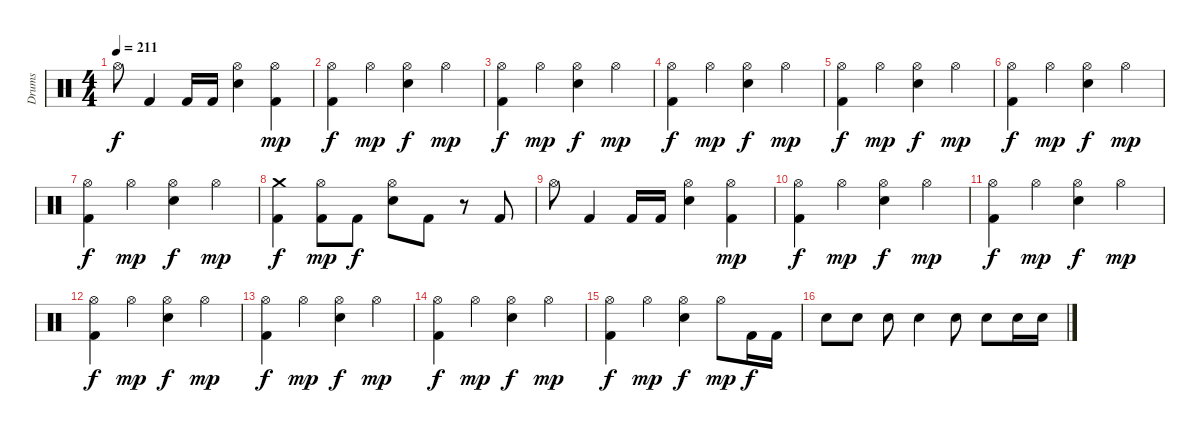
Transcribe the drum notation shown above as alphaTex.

\track ("Drums" "Drums") {instrument percussion}
\staff {score}
\articulation defaults
\ts (4 4)
\tempo 211
\clef neutral
\ks c "Hi-Hat (open)".8{dy f} "Kick (hit) 2".4 "Kick (hit) 2".16 "Kick (hit) 2".16
("Snare (hit) 2" "Hi-Hat (open)").4 ("Kick (hit) 2" "Hi-Hat (open)").4{dy mp} |
("Kick (hit) 2" "Hi-Hat (open)").4{dy f} "Hi-Hat (open)".4{dy mp} ("Snare (hit) 2" "Hi-Hat (open)").4{dy f} "Hi-Hat (open)".4{dy mp} |
("Kick (hit) 2" "Hi-Hat (open)").4{dy f} "Hi-Hat (open)".4{dy mp} ("Snare (hit) 2" "Hi-Hat (open)").4{dy f} "Hi-Hat (open)".4{dy mp} |
("Kick (hit) 2" "Hi-Hat (open)").4{dy f} "Hi-Hat (open)".4{dy mp} ("Snare (hit) 2" "Hi-Hat (open)").4{dy f} "Hi-Hat (open)".4{dy mp} |
("Kick (hit) 2" "Hi-Hat (open)").4{dy f} "Hi-Hat (open)".4{dy mp} ("Snare (hit) 2" "Hi-Hat (open)").4{dy f} "Hi-Hat (open)".4{dy mp} |
("Kick (hit) 2" "Hi-Hat (open)").4{dy f} "Hi-Hat (open)".4{dy mp} ("Snare (hit) 2" "Hi-Hat (open)").4{dy f} "Hi-Hat (open)".4{dy mp} |
("Kick (hit) 2" "Hi-Hat (open)").4{dy f} "Hi-Hat (open)".4{dy mp} ("Snare (hit) 2" "Hi-Hat (open)").4{dy f} "Hi-Hat (open)".4{dy mp} |
("Kick (hit) 2" "Crash medium (hit)").4{dy f} ("Kick (hit) 2" "Hi-Hat (open)").8{dy mp} "Kick (hit) 2".8{dy f} ("Snare (hit) 2" "Hi-Hat (open)").8 "Kick (hit) 2".8 r.8 "Kick (hit) 2".8 |
"Hi-Hat (open)".8 "Kick (hit) 2".4 "Kick (hit) 2".16 "Kick (hit) 2".16 ("Snare (hit) 2" "Hi-Hat (open)").4 ("Kick (hit) 2" "Hi-Hat (open)").4{dy mp} |
("Kick (hit) 2" "Hi-Hat (open)").4{dy f} "Hi-Hat (open)".4{dy mp} ("Snare (hit) 2" "Hi-Hat (open)").4{dy f} "Hi-Hat (open)".4{dy mp} |
("Kick (hit) 2" "Hi-Hat (open)").4{dy f} "Hi-Hat (open)".4{dy mp} ("Snare (hit) 2" "Hi-Hat (open)").4{dy f} "Hi-Hat (open)".4{dy mp} |
("Kick (hit) 2" "Hi-Hat (open)").4{dy f} "Hi-Hat (open)".4{dy mp} ("Snare (hit) 2" "Hi-Hat (open)").4{dy f} "Hi-Hat (open)".4{dy mp} |
("Kick (hit) 2" "Hi-Hat (open)").4{dy f} "Hi-Hat (open)".4{dy mp} ("Snare (hit) 2" "Hi-Hat (open)").4{dy f} "Hi-Hat (open)".4{dy mp} |
("Kick (hit) 2" "Hi-Hat (open)").4{dy f} "Hi-Hat (open)".4{dy mp} ("Snare (hit) 2" "Hi-Hat (open)").4{dy f} "Hi-Hat (open)".4{dy mp} |
("Kick (hit) 2" "Hi-Hat (open)").4{dy f} "Hi-Hat (open)".4{dy mp} ("Snare (hit) 2" "Hi-Hat (open)").4{dy f} "Hi-Hat (open)".8{dy mp} "Kick (hit) 2".16{dy f} "Kick (hit) 2".16 |
"Snare (hit) 2".8 "Snare (hit) 2".8 "Snare (hit) 2".8 "Snare (hit) 2".4 "Snare (hit) 2".8 "Snare (hit) 2".8 "Snare (hit) 2".16 "Snare (hit) 2".16
